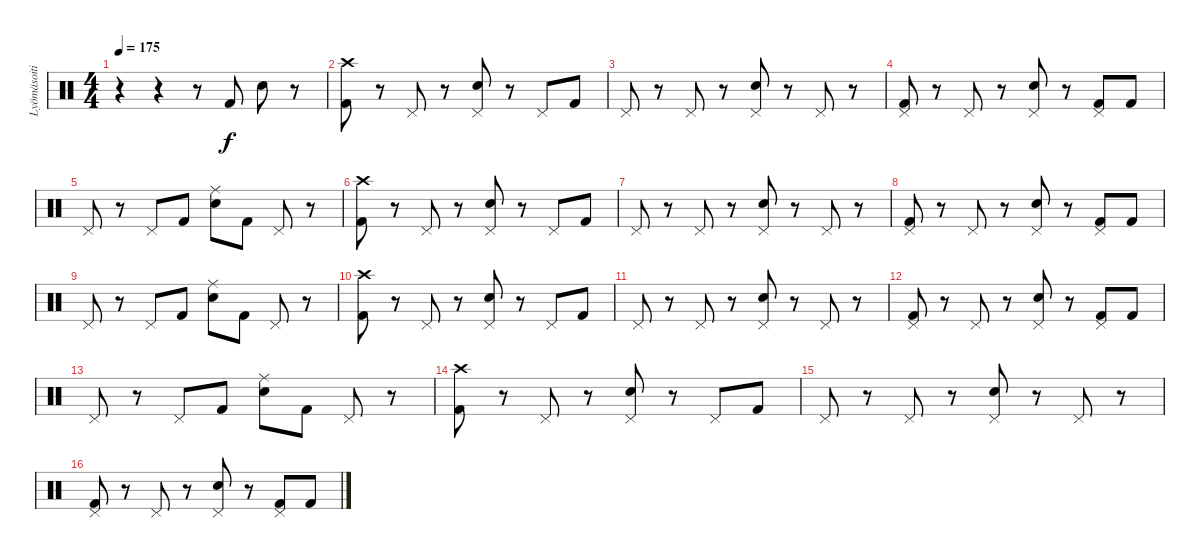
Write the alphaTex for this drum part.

\track ("Lyömäsoitin" "Lyömäsoiti") {instrument percussion}
\staff {score}
\articulation defaults
\ts (4 4)
\tempo 175
\clef neutral
\ks c
r.4{dy f} r.4 r.8 "Kick (hit) 2".8 "Electric Snare (hit)".8 r.8 |
("Crash high (hit)" "Kick (hit) 2").8 r.8 "Pedal Hi-Hat (hit)".8 r.8 ("Pedal Hi-Hat (hit)" "Electric Snare (hit)").8 r.8 "Pedal Hi-Hat (hit)".8 "Kick (hit) 2".8 |
"Pedal Hi-Hat (hit)".8 r.8 "Pedal Hi-Hat (hit)".8 r.8 ("Pedal Hi-Hat (hit)" "Electric Snare (hit)").8 r.8 "Pedal Hi-Hat (hit)".8 r.8 |
("Pedal Hi-Hat (hit)" "Kick (hit) 2").8 r.8 "Pedal Hi-Hat (hit)".8 r.8 ("Pedal Hi-Hat (hit)" "Electric Snare (hit)").8 r.8 ("Pedal Hi-Hat (hit)" "Kick (hit) 2").8 "Kick (hit) 2".8 |
"Pedal Hi-Hat (hit)".8 r.8 "Pedal Hi-Hat (hit)".8 "Kick (hit) 2".8 ("Ride (middle)" "Electric Snare (hit)").8 "Kick (hit) 2".8 "Pedal Hi-Hat (hit)".8 r.8 |
("Crash high (hit)" "Kick (hit) 2").8 r.8 "Pedal Hi-Hat (hit)".8 r.8 ("Pedal Hi-Hat (hit)" "Electric Snare (hit)").8 r.8 "Pedal Hi-Hat (hit)".8 "Kick (hit) 2".8 |
"Pedal Hi-Hat (hit)".8 r.8 "Pedal Hi-Hat (hit)".8 r.8 ("Pedal Hi-Hat (hit)" "Electric Snare (hit)").8 r.8 "Pedal Hi-Hat (hit)".8 r.8 |
("Pedal Hi-Hat (hit)" "Kick (hit) 2").8 r.8 "Pedal Hi-Hat (hit)".8 r.8 ("Pedal Hi-Hat (hit)" "Electric Snare (hit)").8 r.8 ("Pedal Hi-Hat (hit)" "Kick (hit) 2").8 "Kick (hit) 2".8 |
"Pedal Hi-Hat (hit)".8 r.8 "Pedal Hi-Hat (hit)".8 "Kick (hit) 2".8 ("Ride (middle)" "Electric Snare (hit)").8 "Kick (hit) 2".8 "Pedal Hi-Hat (hit)".8 r.8 |
("Crash high (hit)" "Kick (hit) 2").8 r.8 "Pedal Hi-Hat (hit)".8 r.8 ("Pedal Hi-Hat (hit)" "Electric Snare (hit)").8 r.8 "Pedal Hi-Hat (hit)".8 "Kick (hit) 2".8 |
"Pedal Hi-Hat (hit)".8 r.8 "Pedal Hi-Hat (hit)".8 r.8 ("Pedal Hi-Hat (hit)" "Electric Snare (hit)").8 r.8 "Pedal Hi-Hat (hit)".8 r.8 |
("Pedal Hi-Hat (hit)" "Kick (hit) 2").8 r.8 "Pedal Hi-Hat (hit)".8 r.8 ("Pedal Hi-Hat (hit)" "Electric Snare (hit)").8 r.8 ("Pedal Hi-Hat (hit)" "Kick (hit) 2").8 "Kick (hit) 2".8 |
"Pedal Hi-Hat (hit)".8 r.8 "Pedal Hi-Hat (hit)".8 "Kick (hit) 2".8 ("Ride (middle)" "Electric Snare (hit)").8 "Kick (hit) 2".8 "Pedal Hi-Hat (hit)".8 r.8 |
("Crash high (hit)" "Kick (hit) 2").8 r.8 "Pedal Hi-Hat (hit)".8 r.8 ("Pedal Hi-Hat (hit)" "Electric Snare (hit)").8 r.8 "Pedal Hi-Hat (hit)".8 "Kick (hit) 2".8 |
"Pedal Hi-Hat (hit)".8 r.8 "Pedal Hi-Hat (hit)".8 r.8 ("Pedal Hi-Hat (hit)" "Electric Snare (hit)").8 r.8 "Pedal Hi-Hat (hit)".8 r.8 |
("Pedal Hi-Hat (hit)" "Kick (hit) 2").8 r.8 "Pedal Hi-Hat (hit)".8 r.8 ("Pedal Hi-Hat (hit)" "Electric Snare (hit)").8 r.8 ("Pedal Hi-Hat (hit)" "Kick (hit) 2").8 "Kick (hit) 2".8
